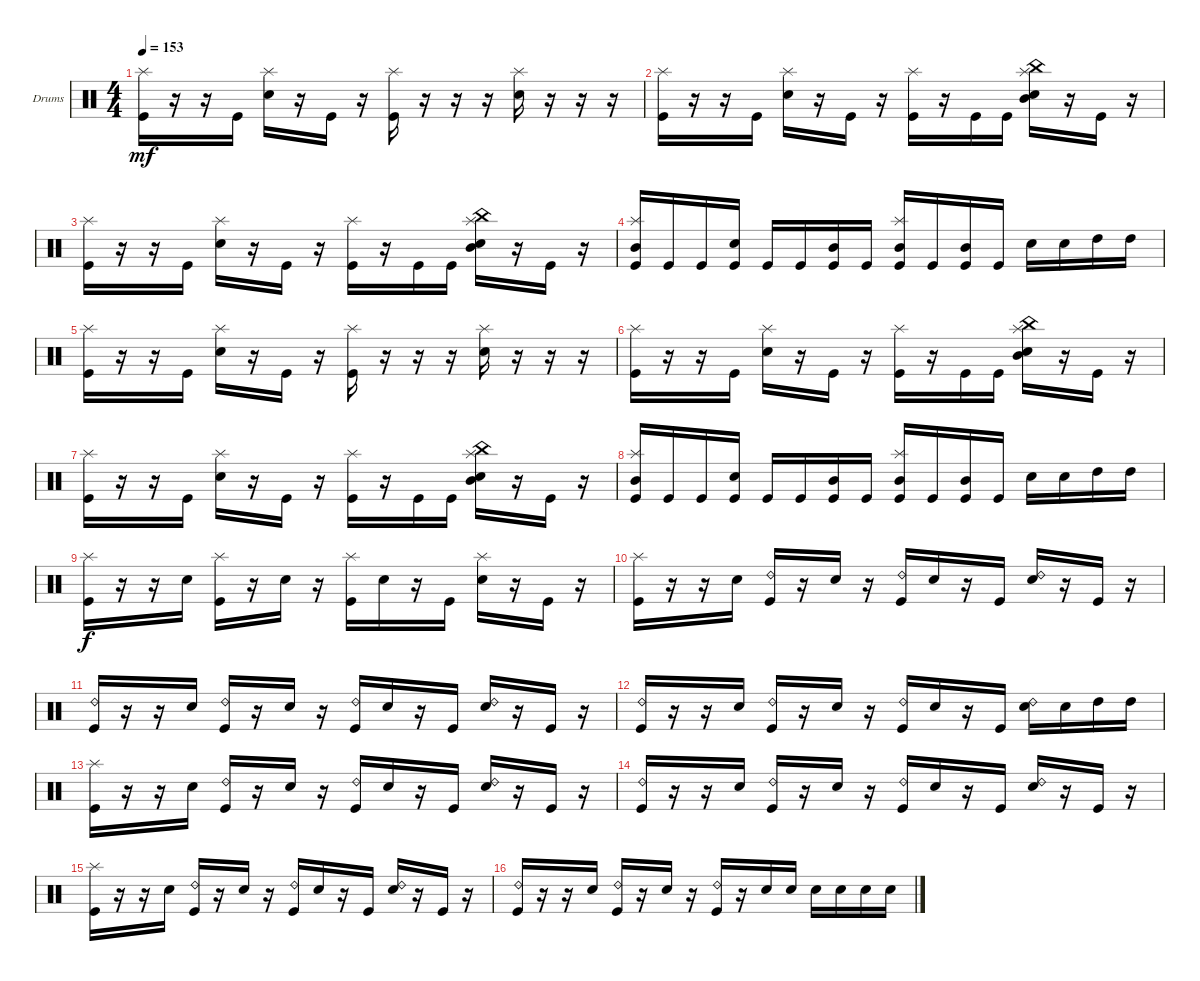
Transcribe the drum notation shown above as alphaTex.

\bracketExtendMode groupsimilarinstruments
\firstSystemTrackNameOrientation horizontal
\otherSystemsTrackNameOrientation horizontal
\track ("Drumkit" "Drums") {instrument percussion}
\staff {score}
\articulation defaults
\ts (4 4)
\tempo 153
\clef neutral
\ks c
("Kick (hit)" "Splash (hit)").16{dy mf} r.16 r.16 "Kick (hit)".16 ("Snare (hit) 2" "Splash (hit)").16 r.16 "Kick (hit)".16 r.16 ("Kick (hit)" "Splash (hit)").16 r.16 r.16 r.16 ("Snare (hit) 2" "Splash (hit)").16 r.16 r.16 r.16 |
("Kick (hit)" "Splash (hit)").16 r.16 r.16 "Kick (hit)".16 ("Snare (hit) 2" "Splash (hit)").16 r.16 "Kick (hit)".16 r.16 ("Kick (hit)" "Splash (hit)").16 r.16 "Kick (hit)".16 "Kick (hit)".16 ("Snare (hit) 2" "Mid Tom (hit)" "Splash (hit)" "China (hit)").16 r.16 "Kick (hit)".16 r.16 |
("Kick (hit)" "Splash (hit)").16 r.16 r.16 "Kick (hit)".16 ("Snare (hit) 2" "Splash (hit)").16 r.16 "Kick (hit)".16 r.16 ("Kick (hit)" "Splash (hit)").16 r.16 "Kick (hit)".16 "Kick (hit)".16 ("Snare (hit) 2" "Mid Tom (hit)" "Splash (hit)" "China (hit)").16 r.16 "Kick (hit)".16 r.16 |
("Kick (hit)" "Mid Tom (hit)" "Splash (hit)").16 "Kick (hit)".16 "Kick (hit)".16 ("Snare (hit) 2" "Kick (hit)").16 "Kick (hit)".16 "Kick (hit)".16 ("Kick (hit)" "Mid Tom (hit)").16 "Kick (hit)".16 ("Kick (hit)" "Mid Tom (hit)" "Splash (hit)").16 "Kick (hit)".16 ("Kick (hit)" "Mid Tom (hit)").16 "Kick (hit)".16 "Snare (hit) 2".16 "Snare (hit) 2".16 "High Tom (hit)".16 "High Tom (hit)".16 |
("Kick (hit)" "Splash (hit)").16 r.16 r.16 "Kick (hit)".16 ("Snare (hit) 2" "Splash (hit)").16 r.16 "Kick (hit)".16 r.16 ("Kick (hit)" "Splash (hit)").16 r.16 r.16 r.16 ("Snare (hit) 2" "Splash (hit)").16 r.16 r.16 r.16 |
("Kick (hit)" "Splash (hit)").16 r.16 r.16 "Kick (hit)".16 ("Snare (hit) 2" "Splash (hit)").16 r.16 "Kick (hit)".16 r.16 ("Kick (hit)" "Splash (hit)").16 r.16 "Kick (hit)".16 "Kick (hit)".16 ("Snare (hit) 2" "Mid Tom (hit)" "Splash (hit)" "China (hit)").16 r.16 "Kick (hit)".16 r.16 |
("Kick (hit)" "Splash (hit)").16 r.16 r.16 "Kick (hit)".16 ("Snare (hit) 2" "Splash (hit)").16 r.16 "Kick (hit)".16 r.16 ("Kick (hit)" "Splash (hit)").16 r.16 "Kick (hit)".16 "Kick (hit)".16 ("Snare (hit) 2" "Mid Tom (hit)" "Splash (hit)" "China (hit)").16 r.16 "Kick (hit)".16 r.16 |
("Kick (hit)" "Mid Tom (hit)" "Splash (hit)").16 "Kick (hit)".16 "Kick (hit)".16 ("Snare (hit) 2" "Kick (hit)").16 "Kick (hit)".16 "Kick (hit)".16 ("Kick (hit)" "Mid Tom (hit)").16 "Kick (hit)".16 ("Kick (hit)" "Mid Tom (hit)" "Splash (hit)").16 "Kick (hit)".16 ("Kick (hit)" "Mid Tom (hit)").16 "Kick (hit)".16 "Snare (hit) 2".16 "Snare (hit) 2".16 "High Tom (hit)".16 "High Tom (hit)".16 |
("Kick (hit)" "Splash (hit)").16{dy f} r.16 r.16 "Snare (hit) 2".16 ("Kick (hit)" "Splash (hit)").16 r.16 "Snare (hit) 2".16 r.16 ("Kick (hit)" "Splash (hit)").16 "Snare (hit) 2".16 r.16 "Kick (hit)".16 ("Snare (hit) 2" "Splash (hit)").16 r.16 "Kick (hit)".16 r.16 |
("Kick (hit)" "Splash (hit)").16 r.16 r.16 "Snare (hit) 2".16 ("Kick (hit)" "Ride (bell) 2").16 r.16 "Snare (hit) 2".16 r.16 ("Kick (hit)" "Ride (bell) 2").16 "Snare (hit) 2".16 r.16 "Kick (hit)".16 ("Snare (hit) 2" "Ride (bell) 2").16 r.16 "Kick (hit)".16 r.16 |
("Kick (hit)" "Ride (bell) 2").16 r.16 r.16 "Snare (hit) 2".16 ("Kick (hit)" "Ride (bell) 2").16 r.16 "Snare (hit) 2".16 r.16 ("Kick (hit)" "Ride (bell) 2").16 "Snare (hit) 2".16 r.16 "Kick (hit)".16 ("Snare (hit) 2" "Ride (bell) 2").16 r.16 "Kick (hit)".16 r.16 |
("Kick (hit)" "Ride (bell) 2").16 r.16 r.16 "Snare (hit) 2".16 ("Kick (hit)" "Ride (bell) 2").16 r.16 "Snare (hit) 2".16 r.16 ("Kick (hit)" "Ride (bell) 2").16 "Snare (hit) 2".16 r.16 "Kick (hit)".16 ("Snare (hit) 2" "Ride (bell) 2").16 "Snare (hit) 2".16 "High Tom (hit)".16 "High Tom (hit)".16 |
("Kick (hit)" "Splash (hit)").16 r.16 r.16 "Snare (hit) 2".16 ("Kick (hit)" "Ride (bell) 2").16 r.16 "Snare (hit) 2".16 r.16 ("Kick (hit)" "Ride (bell) 2").16 "Snare (hit) 2".16 r.16 "Kick (hit)".16 ("Snare (hit) 2" "Ride (bell) 2").16 r.16 "Kick (hit)".16 r.16 |
("Kick (hit)" "Ride (bell) 2").16 r.16 r.16 "Snare (hit) 2".16 ("Kick (hit)" "Ride (bell) 2").16 r.16 "Snare (hit) 2".16 r.16 ("Kick (hit)" "Ride (bell) 2").16 "Snare (hit) 2".16 r.16 "Kick (hit)".16 ("Snare (hit) 2" "Ride (bell) 2").16 r.16 "Kick (hit)".16 r.16 |
("Kick (hit)" "Splash (hit)").16 r.16 r.16 "Snare (hit) 2".16 ("Kick (hit)" "Ride (bell) 2").16 r.16 "Snare (hit) 2".16 r.16 ("Kick (hit)" "Ride (bell) 2").16 "Snare (hit) 2".16 r.16 "Kick (hit)".16 ("Snare (hit) 2" "Ride (bell) 2").16 r.16 "Kick (hit)".16 r.16 |
("Kick (hit)" "Ride (bell) 2").16 r.16 r.16 "Snare (hit) 2".16 ("Kick (hit)" "Ride (bell) 2").16 r.16 "Snare (hit) 2".16 r.16 ("Kick (hit)" "Ride (bell) 2").16 r.16 "Snare (hit) 2".16 "Snare (hit) 2".16 "Snare (hit) 2".16 "Snare (hit) 2".16 "Snare (hit) 2".16 "Snare (hit) 2".16
